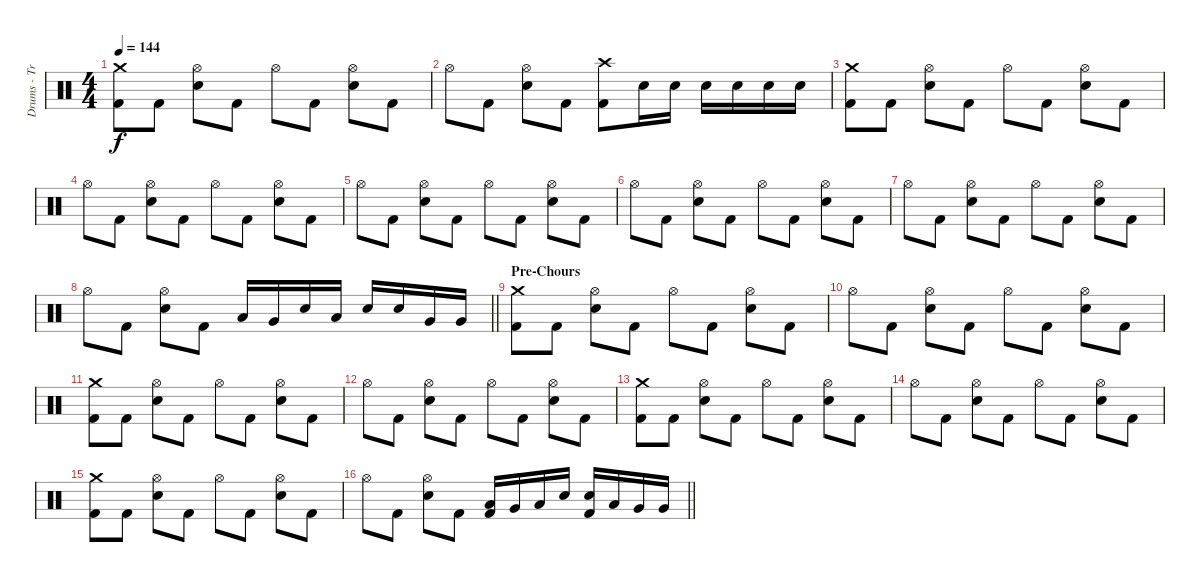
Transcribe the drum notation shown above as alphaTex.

\track ("Drums - Tre Cool" "Drums - Tr") {instrument percussion}
\staff {score}
\articulation defaults
\ts (4 4)
\tempo 144
\clef neutral
\ks c
("Crash medium (hit)" "Kick (hit) 2").8{dy f} "Kick (hit) 2".8 ("Hi-Hat (open)" "Snare (hit) 2").8 "Kick (hit) 2".8 "Hi-Hat (open)".8 "Kick (hit) 2".8 ("Hi-Hat (open)" "Snare (hit) 2").8 "Kick (hit) 2".8 |
"Hi-Hat (open)".8 "Kick (hit) 2".8 ("Hi-Hat (open)" "Snare (hit) 2").8 "Kick (hit) 2".8 ("Crash high (hit)" "Kick (hit) 2").8 "Snare (hit) 2".16 "Snare (hit) 2".16 "Snare (hit) 2".16 "Snare (hit) 2".16 "Snare (hit) 2".16 "Snare (hit) 2".16 |
("Crash medium (hit)" "Kick (hit) 2").8 "Kick (hit) 2".8 ("Hi-Hat (open)" "Snare (hit) 2").8 "Kick (hit) 2".8 "Hi-Hat (open)".8 "Kick (hit) 2".8 ("Hi-Hat (open)" "Snare (hit) 2").8 "Kick (hit) 2".8 |
"Hi-Hat (open)".8 "Kick (hit) 2".8 ("Hi-Hat (open)" "Snare (hit) 2").8 "Kick (hit) 2".8 "Hi-Hat (open)".8 "Kick (hit) 2".8 ("Hi-Hat (open)" "Snare (hit) 2").8 "Kick (hit) 2".8 |
"Hi-Hat (open)".8 "Kick (hit) 2".8 ("Hi-Hat (open)" "Snare (hit) 2").8 "Kick (hit) 2".8 "Hi-Hat (open)".8 "Kick (hit) 2".8 ("Hi-Hat (open)" "Snare (hit) 2").8 "Kick (hit) 2".8 |
"Hi-Hat (open)".8 "Kick (hit) 2".8 ("Hi-Hat (open)" "Snare (hit) 2").8 "Kick (hit) 2".8 "Hi-Hat (open)".8 "Kick (hit) 2".8 ("Hi-Hat (open)" "Snare (hit) 2").8 "Kick (hit) 2".8 |
"Hi-Hat (open)".8 "Kick (hit) 2".8 ("Hi-Hat (open)" "Snare (hit) 2").8 "Kick (hit) 2".8 "Hi-Hat (open)".8 "Kick (hit) 2".8 ("Hi-Hat (open)" "Snare (hit) 2").8 "Kick (hit) 2".8 |
\barLineRight lightlight "Hi-Hat (open)".8 "Kick (hit) 2".8
("Hi-Hat (open)" "Snare (hit) 2").8 "Kick (hit) 2".8 "Low Floor Tom (hit)".16 "Very Low Tom (hit)".16 "Snare (hit) 2".16 "Low Floor Tom (hit)".16 "Snare (hit) 2".16 "Snare (hit) 2".16 "Very Low Tom (hit)".16 "Very Low Tom (hit)".16 |
\section ("" "Pre-Chours")
("Crash medium (hit)" "Kick (hit) 2").8 "Kick (hit) 2".8 ("Hi-Hat (open)" "Snare (hit) 2").8 "Kick (hit) 2".8 "Hi-Hat (open)".8 "Kick (hit) 2".8 ("Hi-Hat (open)" "Snare (hit) 2").8 "Kick (hit) 2".8 |
"Hi-Hat (open)".8 "Kick (hit) 2".8 ("Hi-Hat (open)" "Snare (hit) 2").8 "Kick (hit) 2".8 "Hi-Hat (open)".8 "Kick (hit) 2".8 ("Hi-Hat (open)" "Snare (hit) 2").8 "Kick (hit) 2".8 |
("Crash medium (hit)" "Kick (hit) 2").8 "Kick (hit) 2".8 ("Hi-Hat (open)" "Snare (hit) 2").8 "Kick (hit) 2".8 "Hi-Hat (open)".8 "Kick (hit) 2".8 ("Hi-Hat (open)" "Snare (hit) 2").8 "Kick (hit) 2".8 |
"Hi-Hat (open)".8 "Kick (hit) 2".8 ("Hi-Hat (open)" "Snare (hit) 2").8 "Kick (hit) 2".8 "Hi-Hat (open)".8 "Kick (hit) 2".8 ("Hi-Hat (open)" "Snare (hit) 2").8 "Kick (hit) 2".8 |
("Crash medium (hit)" "Kick (hit) 2").8 "Kick (hit) 2".8 ("Hi-Hat (open)" "Snare (hit) 2").8 "Kick (hit) 2".8 "Hi-Hat (open)".8 "Kick (hit) 2".8 ("Hi-Hat (open)" "Snare (hit) 2").8 "Kick (hit) 2".8 |
"Hi-Hat (open)".8 "Kick (hit) 2".8 ("Hi-Hat (open)" "Snare (hit) 2").8 "Kick (hit) 2".8 "Hi-Hat (open)".8 "Kick (hit) 2".8 ("Hi-Hat (open)" "Snare (hit) 2").8 "Kick (hit) 2".8 |
("Crash medium (hit)" "Kick (hit) 2").8 "Kick (hit) 2".8 ("Hi-Hat (open)" "Snare (hit) 2").8 "Kick (hit) 2".8 "Hi-Hat (open)".8 "Kick (hit) 2".8 ("Hi-Hat (open)" "Snare (hit) 2").8 "Kick (hit) 2".8 |
\barLineRight lightlight "Hi-Hat (open)".8 "Kick (hit) 2".8
("Hi-Hat (open)" "Snare (hit) 2").8 "Kick (hit) 2".8 ("Low Floor Tom (hit)" "Kick (hit) 2").16 "Very Low Tom (hit)".16 "Low Floor Tom (hit)".16 "Snare (hit) 2".16 ("Snare (hit) 2" "Kick (hit) 2").16 "Low Floor Tom (hit)".16 "Very Low Tom (hit)".16 "Very Low Tom (hit)".16
